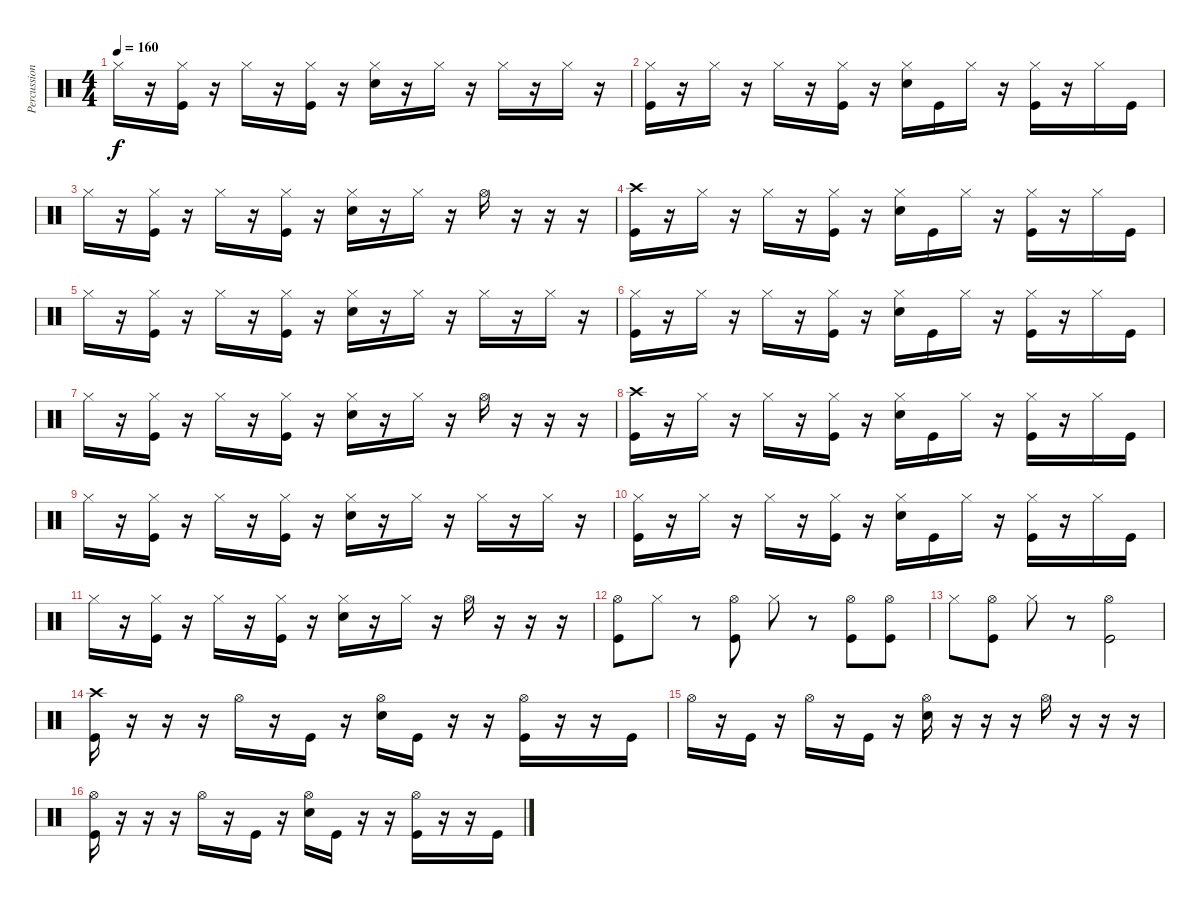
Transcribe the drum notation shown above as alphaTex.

\track ("Percussion" "Percussion") {instrument percussion}
\staff {score}
\articulation defaults
\ts (4 4)
\tempo 160
\clef neutral
\ks c "Hi-Hat (closed)".16{dy f}
r.16 ("Hi-Hat (closed)" "Kick (hit)").16 r.16 "Hi-Hat (closed)".16 r.16 ("Hi-Hat (closed)" "Kick (hit)").16 r.16 ("Hi-Hat (closed)" "Snare (hit) 2").16 r.16 "Hi-Hat (closed)".16 r.16 "Hi-Hat (closed)".16 r.16 "Hi-Hat (closed)".16 r.16 |
("Kick (hit)" "Hi-Hat (closed)").16 r.16 "Hi-Hat (closed)".16 r.16 "Hi-Hat (closed)".16 r.16 ("Hi-Hat (closed)" "Kick (hit)").16 r.16 ("Hi-Hat (closed)" "Snare (hit) 2").16 "Kick (hit)".16 "Hi-Hat (closed)".16 r.16 ("Hi-Hat (closed)" "Kick (hit)").16 r.16 "Hi-Hat (closed)".16 "Kick (hit)".16 |
"Hi-Hat (closed)".16 r.16 ("Hi-Hat (closed)" "Kick (hit)").16 r.16 "Hi-Hat (closed)".16 r.16 ("Hi-Hat (closed)" "Kick (hit)").16 r.16 ("Hi-Hat (closed)" "Snare (hit) 2").16 r.16 "Hi-Hat (closed)".16 r.16 "Hi-Hat (open)".16 r.16 r.16 r.16 |
("Kick (hit)" "Crash high (hit)").16 r.16 "Hi-Hat (closed)".16 r.16 "Hi-Hat (closed)".16 r.16 ("Hi-Hat (closed)" "Kick (hit)").16 r.16 ("Hi-Hat (closed)" "Snare (hit) 2").16 "Kick (hit)".16 "Hi-Hat (closed)".16 r.16 ("Hi-Hat (closed)" "Kick (hit)").16 r.16 "Hi-Hat (closed)".16 "Kick (hit)".16 |
"Hi-Hat (closed)".16 r.16 ("Hi-Hat (closed)" "Kick (hit)").16 r.16 "Hi-Hat (closed)".16 r.16 ("Hi-Hat (closed)" "Kick (hit)").16 r.16 ("Hi-Hat (closed)" "Snare (hit) 2").16 r.16 "Hi-Hat (closed)".16 r.16 "Hi-Hat (closed)".16 r.16 "Hi-Hat (closed)".16 r.16 |
("Kick (hit)" "Hi-Hat (closed)").16 r.16 "Hi-Hat (closed)".16 r.16 "Hi-Hat (closed)".16 r.16 ("Hi-Hat (closed)" "Kick (hit)").16 r.16 ("Hi-Hat (closed)" "Snare (hit) 2").16 "Kick (hit)".16 "Hi-Hat (closed)".16 r.16 ("Hi-Hat (closed)" "Kick (hit)").16 r.16 "Hi-Hat (closed)".16 "Kick (hit)".16 |
"Hi-Hat (closed)".16 r.16 ("Hi-Hat (closed)" "Kick (hit)").16 r.16 "Hi-Hat (closed)".16 r.16 ("Hi-Hat (closed)" "Kick (hit)").16 r.16 ("Hi-Hat (closed)" "Snare (hit) 2").16 r.16 "Hi-Hat (closed)".16 r.16 "Hi-Hat (open)".16 r.16 r.16 r.16 |
("Kick (hit)" "Crash high (hit)").16 r.16 "Hi-Hat (closed)".16 r.16 "Hi-Hat (closed)".16 r.16 ("Hi-Hat (closed)" "Kick (hit)").16 r.16 ("Hi-Hat (closed)" "Snare (hit) 2").16 "Kick (hit)".16 "Hi-Hat (closed)".16 r.16 ("Hi-Hat (closed)" "Kick (hit)").16 r.16 "Hi-Hat (closed)".16 "Kick (hit)".16 |
"Hi-Hat (closed)".16 r.16 ("Hi-Hat (closed)" "Kick (hit)").16 r.16 "Hi-Hat (closed)".16 r.16 ("Hi-Hat (closed)" "Kick (hit)").16 r.16 ("Hi-Hat (closed)" "Snare (hit) 2").16 r.16 "Hi-Hat (closed)".16 r.16 "Hi-Hat (closed)".16 r.16 "Hi-Hat (closed)".16 r.16 |
("Kick (hit)" "Hi-Hat (closed)").16 r.16 "Hi-Hat (closed)".16 r.16 "Hi-Hat (closed)".16 r.16 ("Hi-Hat (closed)" "Kick (hit)").16 r.16 ("Hi-Hat (closed)" "Snare (hit) 2").16 "Kick (hit)".16 "Hi-Hat (closed)".16 r.16 ("Hi-Hat (closed)" "Kick (hit)").16 r.16 "Hi-Hat (closed)".16 "Kick (hit)".16 |
"Hi-Hat (closed)".16 r.16 ("Hi-Hat (closed)" "Kick (hit)").16 r.16 "Hi-Hat (closed)".16 r.16 ("Hi-Hat (closed)" "Kick (hit)").16 r.16 ("Hi-Hat (closed)" "Snare (hit) 2").16 r.16 "Hi-Hat (closed)".16 r.16 "Hi-Hat (open)".16 r.16 r.16 r.16 |
("Kick (hit)" "Hi-Hat (open)").8 "Hi-Hat (closed)".8 r.8 ("Hi-Hat (open)" "Kick (hit)").8 "Hi-Hat (closed)".8 r.8 ("Kick (hit)" "Hi-Hat (open)").8 ("Kick (hit)" "Hi-Hat (open)").8 |
"Hi-Hat (closed)".8 ("Kick (hit)" "Hi-Hat (open)").8 "Hi-Hat (closed)".8 r.8 ("Kick (hit)" "Hi-Hat (open)").2 |
("Kick (hit)" "Crash high (hit)").16 r.16 r.16 r.16 "Hi-Hat (open)".16 r.16 "Kick (hit)".16 r.16 ("Hi-Hat (open)" "Snare (hit) 2").16 "Kick (hit)".16 r.16 r.16 ("Hi-Hat (open)" "Kick (hit)").16 r.16 r.16 "Kick (hit)".16 |
"Hi-Hat (open)".16 r.16 "Kick (hit)".16 r.16 "Hi-Hat (open)".16 r.16 "Kick (hit)".16 r.16 ("Hi-Hat (open)" "Snare (hit) 2").16 r.16 r.16 r.16 "Hi-Hat (open)".16 r.16 r.16 r.16 |
("Kick (hit)" "Hi-Hat (open)").16 r.16 r.16 r.16 "Hi-Hat (open)".16 r.16 "Kick (hit)".16 r.16 ("Hi-Hat (open)" "Snare (hit) 2").16 "Kick (hit)".16 r.16 r.16 ("Hi-Hat (open)" "Kick (hit)").16 r.16 r.16 "Kick (hit)".16
